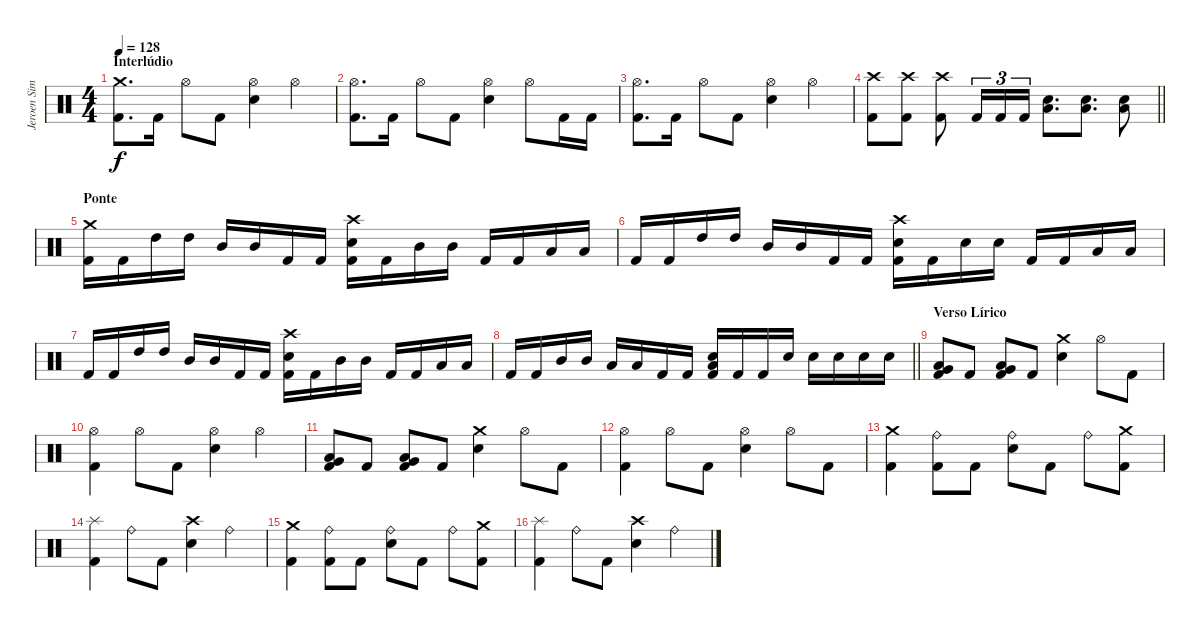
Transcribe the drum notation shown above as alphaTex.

\track ("Jeroen Simons" "Jeroen Sim") {instrument percussion}
\staff {score}
\articulation defaults
\ts (4 4)
\section ("" "Interlúdio")
\tempo 128
\clef neutral
\ks c
("Crash medium (hit)" "Kick (hit) 2").8{d dy f} "Kick (hit) 2".16 "Hi-Hat (open)".8 "Kick (hit) 2".8 ("Hi-Hat (open)" "Electric Snare (hit)").4 "Hi-Hat (open)".4 |
("Hi-Hat (open)" "Kick (hit) 2").8{d} "Kick (hit) 2".16 "Hi-Hat (open)".8 "Kick (hit) 2".8 ("Hi-Hat (open)" "Electric Snare (hit)").4 "Hi-Hat (open)".8 "Kick (hit) 2".16 "Kick (hit) 2".16 |
("Hi-Hat (open)" "Kick (hit) 2").8{d} "Kick (hit) 2".16 "Hi-Hat (open)".8 "Kick (hit) 2".8 ("Hi-Hat (open)" "Electric Snare (hit)").4 "Hi-Hat (open)".4 |
\barLineRight lightlight
("Crash high (hit)" "Kick (hit) 2").8 ("Crash high (hit)" "Kick (hit) 2").8 ("Crash high (hit)" "Kick (hit) 2").8 "Kick (hit) 2".16{tu (3 2)} "Kick (hit) 2".16{tu (3 2)} "Kick (hit) 2".16{tu (3 2)} ("Low Tom (hit)" "Electric Snare (hit)").8{d} ("Low Tom (hit)" "Electric Snare (hit)").8{d} ("Low Tom (hit)" "Electric Snare (hit)").8 |
\section ("" "Ponte")
("Crash medium (hit)" "Kick (hit) 2").16 "Kick (hit) 2".16 "High Tom (hit)".16 "High Tom (hit)".16 "Mid Tom (hit)".16 "Mid Tom (hit)".16 "Kick (hit) 2".16 "Kick (hit) 2".16 ("Crash high (hit)" "Electric Snare (hit)" "Kick (hit) 2").16 "Kick (hit) 2".16 "Mid Tom (hit)".16 "Mid Tom (hit)".16 "Kick (hit) 2".16 "Kick (hit) 2".16 "Low Tom (hit)".16 "Low Tom (hit)".16 |
"Kick (hit) 2".16 "Kick (hit) 2".16 "High Tom (hit)".16 "High Tom (hit)".16 "Mid Tom (hit)".16 "Mid Tom (hit)".16 "Kick (hit) 2".16 "Kick (hit) 2".16 ("Crash high (hit)" "Electric Snare (hit)" "Kick (hit) 2").16 "Kick (hit) 2".16 "Electric Snare (hit)".16 "Electric Snare (hit)".16 "Kick (hit) 2".16 "Kick (hit) 2".16 "Low Tom (hit)".16 "Low Tom (hit)".16 |
"Kick (hit) 2".16 "Kick (hit) 2".16 "High Tom (hit)".16 "High Tom (hit)".16 "Mid Tom (hit)".16 "Mid Tom (hit)".16 "Kick (hit) 2".16 "Kick (hit) 2".16 ("Crash high (hit)" "Electric Snare (hit)" "Kick (hit) 2").16 "Kick (hit) 2".16 "Mid Tom (hit)".16 "Mid Tom (hit)".16 "Kick (hit) 2".16 "Kick (hit) 2".16 "Low Tom (hit)".16 "Low Tom (hit)".16 |
\barLineRight lightlight "Kick (hit) 2".16 "Kick (hit) 2".16 "Mid Tom (hit)".16 "Mid Tom (hit)".16 "Low Tom (hit)".16 "Low Tom (hit)".16 "Kick (hit) 2".16 "Kick (hit) 2".16
("Low Tom (hit)" "Electric Snare (hit)" "Kick (hit) 2").16 "Kick (hit) 2".16 "Kick (hit) 2".16 "Electric Snare (hit)".16 "Electric Snare (hit)".16 "Electric Snare (hit)".16 "Electric Snare (hit)".16 "Electric Snare (hit)".16 |
\section ("" "Verso Lírico")
("Very Low Tom (hit)" "Low Tom (hit)" "Kick (hit) 2").8 "Kick (hit) 2".8 ("Very Low Tom (hit)" "Low Tom (hit)" "Kick (hit) 2").8 "Kick (hit) 2".8 ("Crash medium (hit)" "Electric Snare (hit)").4 "Hi-Hat (open)".8 "Kick (hit) 2".8 |
("Hi-Hat (open)" "Kick (hit) 2").4 "Hi-Hat (open)".8 "Kick (hit) 2".8 ("Hi-Hat (open)" "Electric Snare (hit)").4 "Hi-Hat (open)".4 |
("Very Low Tom (hit)" "Low Tom (hit)" "Kick (hit) 2").8 "Kick (hit) 2".8 ("Very Low Tom (hit)" "Low Tom (hit)" "Kick (hit) 2").8 "Kick (hit) 2".8 ("Crash medium (hit)" "Electric Snare (hit)").4 "Hi-Hat (open)".8 "Kick (hit) 2".8 |
("Hi-Hat (open)" "Kick (hit) 2").4 "Hi-Hat (open)".8 "Kick (hit) 2".8 ("Hi-Hat (open)" "Electric Snare (hit)").4 "Hi-Hat (open)".8 "Kick (hit) 2".8 |
("Crash medium (hit)" "Kick (hit) 2").4 ("Ride (bell)" "Kick (hit) 2").8 "Kick (hit) 2".8 ("Ride (bell)" "Electric Snare (hit)").8 "Kick (hit) 2".8 "Ride (bell)".8 ("Crash medium (hit)" "Kick (hit) 2").8 |
("Splash (hit)" "Kick (hit) 2").4 "Ride (bell)".8 "Kick (hit) 2".8 ("Crash high (hit)" "Electric Snare (hit)").4 "Ride (bell)".4 |
("Crash medium (hit)" "Kick (hit) 2").4 ("Ride (bell)" "Kick (hit) 2").8 "Kick (hit) 2".8 ("Ride (bell)" "Electric Snare (hit)").8 "Kick (hit) 2".8 "Ride (bell)".8 ("Crash medium (hit)" "Kick (hit) 2").8 |
("Splash (hit)" "Kick (hit) 2").4 "Ride (bell)".8 "Kick (hit) 2".8 ("Crash high (hit)" "Electric Snare (hit)").4 "Ride (bell)".4
